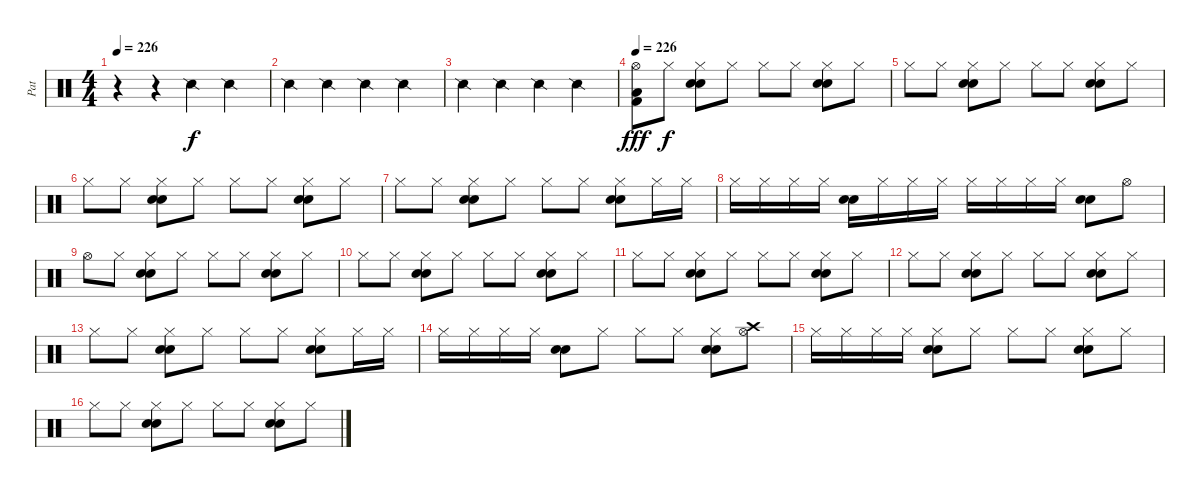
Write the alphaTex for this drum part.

\track ("Pat" "Pat") {instrument percussion}
\staff {score}
\articulation defaults
\ts (4 4)
\tempo 226
\tempo 100
\tempo 226
\clef neutral
\ks c
r.4{dy f} r.4 "Snare (side stick) 2".4 "Snare (side stick) 2".4 |
"Snare (side stick) 2".4 "Snare (side stick) 2".4 "Snare (side stick) 2".4 "Snare (side stick) 2".4 |
"Snare (side stick) 2".4 "Snare (side stick) 2".4 "Snare (side stick) 2".4 "Snare (side stick) 2".4 |
\tempo 226
("Hi-Hat (open)" "Low Floor Tom (hit)" "Kick (hit) 2").8{dy fff} "Hi-Hat (closed)".8{dy f} ("Hi-Hat (closed)" "Snare (hit) 2" "Electric Snare (hit)").8 "Hi-Hat (closed)".8 "Hi-Hat (closed)".8 "Hi-Hat (closed)".8 ("Hi-Hat (closed)" "Snare (hit) 2" "Electric Snare (hit)").8 "Hi-Hat (closed)".8 |
"Hi-Hat (closed)".8 "Hi-Hat (closed)".8 ("Hi-Hat (closed)" "Snare (hit) 2" "Electric Snare (hit)").8 "Hi-Hat (closed)".8 "Hi-Hat (closed)".8 "Hi-Hat (closed)".8 ("Hi-Hat (closed)" "Snare (hit) 2" "Electric Snare (hit)").8 "Hi-Hat (closed)".8 |
"Hi-Hat (closed)".8 "Hi-Hat (closed)".8 ("Hi-Hat (closed)" "Snare (hit) 2" "Electric Snare (hit)").8 "Hi-Hat (closed)".8 "Hi-Hat (closed)".8 "Hi-Hat (closed)".8 ("Hi-Hat (closed)" "Snare (hit) 2" "Electric Snare (hit)").8 "Hi-Hat (closed)".8 |
"Hi-Hat (closed)".8 "Hi-Hat (closed)".8 ("Hi-Hat (closed)" "Snare (hit) 2" "Electric Snare (hit)").8 "Hi-Hat (closed)".8 "Hi-Hat (closed)".8 "Hi-Hat (closed)".8 ("Hi-Hat (closed)" "Snare (hit) 2" "Electric Snare (hit)").8 "Hi-Hat (closed)".16 "Hi-Hat (closed)".16 |
"Hi-Hat (closed)".16 "Hi-Hat (closed)".16 "Hi-Hat (closed)".16 "Hi-Hat (closed)".16 ("Snare (hit) 2" "Electric Snare (hit)").16 "Hi-Hat (closed)".16 "Hi-Hat (closed)".16 "Hi-Hat (closed)".16 "Hi-Hat (closed)".16 "Hi-Hat (closed)".16 "Hi-Hat (closed)".16 "Hi-Hat (closed)".16 ("Snare (hit) 2" "Electric Snare (hit)").8 "Hi-Hat (open)".8 |
"Hi-Hat (open)".8 "Hi-Hat (closed)".8 ("Hi-Hat (closed)" "Snare (hit) 2" "Electric Snare (hit)").8 "Hi-Hat (closed)".8 "Hi-Hat (closed)".8 "Hi-Hat (closed)".8 ("Hi-Hat (closed)" "Snare (hit) 2" "Electric Snare (hit)").8 "Hi-Hat (closed)".8 |
"Hi-Hat (closed)".8 "Hi-Hat (closed)".8 ("Hi-Hat (closed)" "Snare (hit) 2" "Electric Snare (hit)").8 "Hi-Hat (closed)".8 "Hi-Hat (closed)".8 "Hi-Hat (closed)".8 ("Hi-Hat (closed)" "Snare (hit) 2" "Electric Snare (hit)").8 "Hi-Hat (closed)".8 |
"Hi-Hat (closed)".8 "Hi-Hat (closed)".8 ("Hi-Hat (closed)" "Snare (hit) 2" "Electric Snare (hit)").8 "Hi-Hat (closed)".8 "Hi-Hat (closed)".8 "Hi-Hat (closed)".8 ("Hi-Hat (closed)" "Snare (hit) 2" "Electric Snare (hit)").8 "Hi-Hat (closed)".8 |
"Hi-Hat (closed)".8 "Hi-Hat (closed)".8 ("Hi-Hat (closed)" "Snare (hit) 2" "Electric Snare (hit)").8 "Hi-Hat (closed)".8 "Hi-Hat (closed)".8 "Hi-Hat (closed)".8 ("Hi-Hat (closed)" "Snare (hit) 2" "Electric Snare (hit)").8 "Hi-Hat (closed)".8 |
"Hi-Hat (closed)".8 "Hi-Hat (closed)".8 ("Hi-Hat (closed)" "Snare (hit) 2" "Electric Snare (hit)").8 "Hi-Hat (closed)".8 "Hi-Hat (closed)".8 "Hi-Hat (closed)".8 ("Hi-Hat (closed)" "Snare (hit) 2" "Electric Snare (hit)").8 "Hi-Hat (closed)".16 "Hi-Hat (closed)".16 |
"Hi-Hat (closed)".16 "Hi-Hat (closed)".16 "Hi-Hat (closed)".16 "Hi-Hat (closed)".16 ("Snare (hit) 2" "Electric Snare (hit)").8 "Hi-Hat (closed)".8 "Hi-Hat (closed)".8 "Hi-Hat (closed)".8 ("Hi-Hat (closed)" "Snare (hit) 2" "Electric Snare (hit)").8 ("Hi-Hat (open)" "Crash high (hit)").8 |
"Hi-Hat (closed)".16 "Hi-Hat (closed)".16 "Hi-Hat (closed)".16 "Hi-Hat (closed)".16 ("Hi-Hat (closed)" "Snare (hit) 2" "Electric Snare (hit)").8 "Hi-Hat (closed)".8 "Hi-Hat (closed)".8 "Hi-Hat (closed)".8 ("Hi-Hat (closed)" "Snare (hit) 2" "Electric Snare (hit)").8 "Hi-Hat (closed)".8 |
"Hi-Hat (closed)".8 "Hi-Hat (closed)".8 ("Hi-Hat (closed)" "Snare (hit) 2" "Electric Snare (hit)").8 "Hi-Hat (closed)".8 "Hi-Hat (closed)".8 "Hi-Hat (closed)".8 ("Hi-Hat (closed)" "Snare (hit) 2" "Electric Snare (hit)").8 "Hi-Hat (closed)".8
